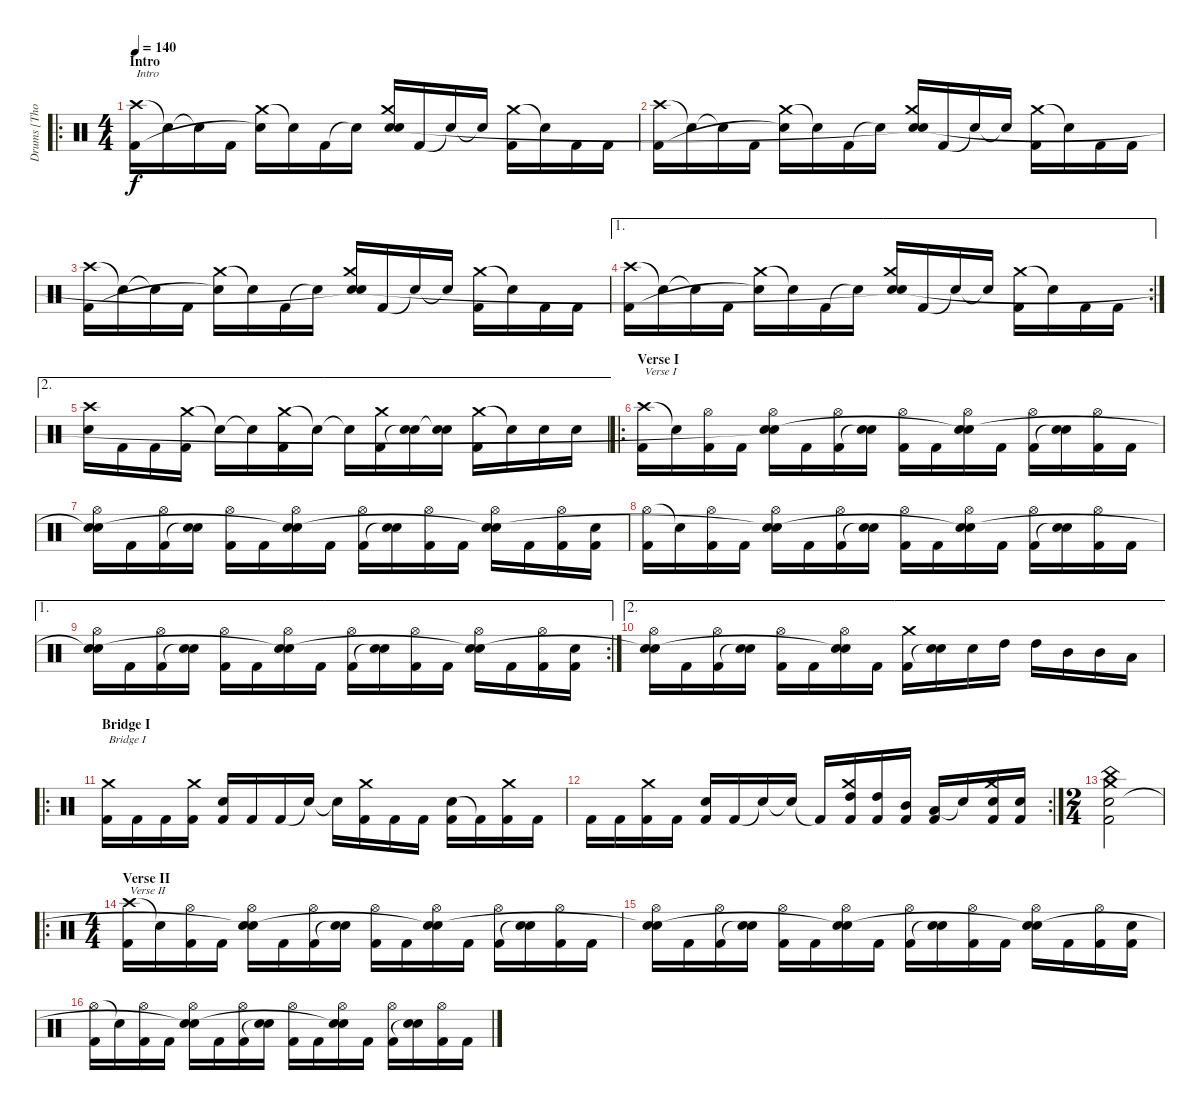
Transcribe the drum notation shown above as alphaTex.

\track ("Drums [Thomas Haake]" "Drums [Tho") {instrument percussion}
\staff {score}
\articulation defaults
\ro
\ts (4 4)
\section ("" "Intro")
\tempo 140
\clef neutral
\ks c
("Crash high (hit)" "Kick (hit) 2").16{txt "Intro" dy f} "Snare (hit)"{t}.16 "Snare (hit)"{t}.16 "Kick (hit) 2".16 ("Crash medium (hit)" "Snare (hit)"{t}).16 "Snare (hit)"{t}.16 "Kick (hit) 2".16 "Snare (hit)"{t}.16 ("Crash medium (hit)" "Electric Snare (hit)" "Snare (hit)").16 "Kick (hit) 2".16 "Snare (hit)"{t}.16 "Snare (hit)"{t}.16 ("Crash medium (hit)" "Kick (hit) 2").16 "Snare (hit)"{t}.16 "Kick (hit) 2".16 "Kick (hit) 2".16 |
("Crash high (hit)" "Kick (hit) 2").16 "Snare (hit)"{t}.16 "Snare (hit)"{t}.16 "Kick (hit) 2".16 ("Crash medium (hit)" "Snare (hit)"{t}).16 "Snare (hit)"{t}.16 "Kick (hit) 2".16 "Snare (hit)"{t}.16 ("Crash medium (hit)" "Electric Snare (hit)" "Snare (hit)"{t}).16 "Kick (hit) 2".16 "Snare (hit)"{t}.16 "Snare (hit)"{t}.16 ("Crash medium (hit)" "Kick (hit) 2").16 "Snare (hit)"{t}.16 "Kick (hit) 2".16 "Kick (hit) 2".16 |
("Crash high (hit)" "Kick (hit) 2").16 "Snare (hit)"{t}.16 "Snare (hit)"{t}.16 "Kick (hit) 2".16 ("Crash medium (hit)" "Snare (hit)"{t}).16 "Snare (hit)"{t}.16 "Kick (hit) 2".16 "Snare (hit)"{t}.16 ("Crash medium (hit)" "Electric Snare (hit)" "Snare (hit)"{t}).16 "Kick (hit) 2".16 "Snare (hit)"{t}.16 "Snare (hit)"{t}.16 ("Crash medium (hit)" "Kick (hit) 2").16 "Snare (hit)"{t}.16 "Kick (hit) 2".16 "Kick (hit) 2".16 |
\ae 1
\rc 2
("Crash high (hit)" "Kick (hit) 2").16 "Snare (hit)"{t}.16 "Snare (hit)"{t}.16 "Kick (hit) 2".16 ("Crash medium (hit)" "Snare (hit)"{t}).16 "Snare (hit)"{t}.16 "Kick (hit) 2".16 "Snare (hit)"{t}.16 ("Crash medium (hit)" "Electric Snare (hit)" "Snare (hit)"{t}).16 "Kick (hit) 2".16 "Snare (hit)"{t}.16 "Snare (hit)"{t}.16 ("Crash medium (hit)" "Kick (hit) 2").16 "Snare (hit)"{t}.16 "Kick (hit) 2".16 "Kick (hit) 2".16 |
\ae 2
("Crash high (hit)" "Electric Snare (hit)").16 "Kick (hit) 2".16 "Kick (hit) 2".16 ("Crash medium (hit)" "Kick (hit) 2").16 "Snare (hit)"{t}.16 "Snare (hit)"{t}.16 ("Crash medium (hit)" "Kick (hit) 2").16 "Snare (hit)"{t}.16 "Snare (hit)"{t}.16 ("Crash medium (hit)" "Kick (hit) 2").16 ("Electric Snare (hit)" "Snare (hit)"{t}).16 ("Electric Snare (hit)" "Snare (hit)"{t}).16 ("Crash medium (hit)" "Kick (hit) 2").16 "Snare (hit)"{t}.16 "Electric Snare (hit)".16 "Electric Snare (hit)".16 |
\ro
\section ("" "Verse I")
("Crash high (hit)" "Kick (hit) 2").16{txt "Verse I"} "Snare (hit)"{t}.16 ("Hi-Hat (open)" "Kick (hit) 2").16 "Kick (hit) 2".16 ("Hi-Hat (open)" "Electric Snare (hit)" "Snare (hit)"{t}).16 "Kick (hit) 2".16 ("Hi-Hat (open)" "Kick (hit) 2").16 ("Electric Snare (hit)" "Snare (hit)"{t}).16 ("Hi-Hat (open)" "Kick (hit) 2").16 "Kick (hit) 2".16 ("Hi-Hat (open)" "Electric Snare (hit)" "Snare (hit)"{t}).16 "Kick (hit) 2".16 ("Hi-Hat (open)" "Kick (hit) 2").16 ("Electric Snare (hit)" "Snare (hit)"{t}).16 ("Hi-Hat (open)" "Kick (hit) 2").16 "Kick (hit) 2".16 |
("Hi-Hat (open)" "Electric Snare (hit)" "Snare (hit)"{t}).16 "Kick (hit) 2".16 ("Hi-Hat (open)" "Kick (hit) 2").16 ("Electric Snare (hit)" "Snare (hit)"{t}).16 ("Hi-Hat (open)" "Kick (hit) 2").16 "Kick (hit) 2".16 ("Hi-Hat (open)" "Electric Snare (hit)" "Snare (hit)"{t}).16 "Kick (hit) 2".16 ("Hi-Hat (open)" "Kick (hit) 2").16 ("Electric Snare (hit)" "Snare (hit)"{t}).16 ("Hi-Hat (open)" "Kick (hit) 2").16 "Kick (hit) 2".16 ("Hi-Hat (open)" "Electric Snare (hit)" "Snare (hit)"{t}).16 "Kick (hit) 2".16 ("Hi-Hat (open)" "Kick (hit) 2").16 ("Electric Snare (hit)" "Kick (hit) 2").16 |
("Hi-Hat (open)" "Kick (hit) 2").16 "Snare (hit)"{t}.16 ("Hi-Hat (open)" "Kick (hit) 2").16 "Kick (hit) 2".16 ("Hi-Hat (open)" "Electric Snare (hit)" "Snare (hit)"{t}).16 "Kick (hit) 2".16 ("Hi-Hat (open)" "Kick (hit) 2").16 ("Electric Snare (hit)" "Snare (hit)"{t}).16 ("Hi-Hat (open)" "Kick (hit) 2").16 "Kick (hit) 2".16 ("Hi-Hat (open)" "Electric Snare (hit)" "Snare (hit)"{t}).16 "Kick (hit) 2".16 ("Hi-Hat (open)" "Kick (hit) 2").16 ("Electric Snare (hit)" "Snare (hit)"{t}).16 ("Hi-Hat (open)" "Kick (hit) 2").16 "Kick (hit) 2".16 |
\ae 1
\rc 2
("Hi-Hat (open)" "Electric Snare (hit)" "Snare (hit)"{t}).16 "Kick (hit) 2".16 ("Hi-Hat (open)" "Kick (hit) 2").16 ("Electric Snare (hit)" "Snare (hit)"{t}).16 ("Hi-Hat (open)" "Kick (hit) 2").16 "Kick (hit) 2".16 ("Hi-Hat (open)" "Electric Snare (hit)" "Snare (hit)"{t}).16 "Kick (hit) 2".16 ("Hi-Hat (open)" "Kick (hit) 2").16 ("Electric Snare (hit)" "Snare (hit)"{t}).16 ("Hi-Hat (open)" "Kick (hit) 2").16 "Kick (hit) 2".16 ("Hi-Hat (open)" "Electric Snare (hit)" "Snare (hit)"{t}).16 "Kick (hit) 2".16 ("Hi-Hat (open)" "Kick (hit) 2").16 ("Electric Snare (hit)" "Kick (hit) 2").16 |
\ae 2
("Hi-Hat (open)" "Electric Snare (hit)" "Snare (hit)"{t}).16 "Kick (hit) 2".16 ("Hi-Hat (open)" "Kick (hit) 2").16 ("Electric Snare (hit)" "Snare (hit)"{t}).16 ("Hi-Hat (open)" "Kick (hit) 2").16 "Kick (hit) 2".16 ("Hi-Hat (open)" "Electric Snare (hit)" "Snare (hit)"{t}).16 "Kick (hit) 2".16 ("Crash medium (hit)" "Kick (hit) 2").16 ("Electric Snare (hit)" "Snare (hit)"{t}).16 "Electric Snare (hit)".16 "High Tom (hit)".16 "High Tom (hit)".16 "Mid Tom (hit)".16 "Mid Tom (hit)".16 "Low Tom (hit)".16 |
\ro
\section ("" "Bridge I")
("Crash medium (hit)" "Kick (hit) 2").16{txt "Bridge I"} "Kick (hit) 2".16 "Kick (hit) 2".16 ("Crash medium (hit)" "Kick (hit) 2").16 ("Electric Snare (hit)" "Kick (hit) 2").16 "Kick (hit) 2".16 "Kick (hit) 2".16 "Snare (hit)"{t}.16 "Snare (hit)"{t}.16 ("Crash medium (hit)" "Kick (hit) 2").16 "Kick (hit) 2".16 "Kick (hit) 2".16 ("Electric Snare (hit)" "Kick (hit) 2").16 "Kick (hit) 2"{t}.16 ("Crash medium (hit)" "Kick (hit) 2").16 "Kick (hit) 2".16 |
\rc 2 "Kick (hit) 2".16 "Kick (hit) 2".16
("Crash medium (hit)" "Kick (hit) 2").16 "Kick (hit) 2".16 ("Electric Snare (hit)" "Kick (hit) 2").16 "Kick (hit) 2".16 "Snare (hit)"{t}.16 "Snare (hit)"{t}.16 "Kick (hit) 2"{t}.16 ("Crash medium (hit)" "High Tom (hit)" "Kick (hit) 2").16 ("High Tom (hit)" "Kick (hit) 2").16 ("Mid Tom (hit)" "Kick (hit) 2").16 ("Low Tom (hit)" "Kick (hit) 2").16 "Snare (hit)"{t}.16 ("Crash medium (hit)" "Electric Snare (hit)" "Kick (hit) 2").16 ("Electric Snare (hit)" "Kick (hit) 2").16 |
\ts (2 4)
("China (hit)" "Crash medium (hit)" "Electric Snare (hit)" "Kick (hit) 2").2 |
\ro
\ts (4 4)
\section ("" "Verse II")
("Crash high (hit)" "Kick (hit) 2").16{txt "Verse II"} "Snare (hit)"{t}.16 ("Hi-Hat (open)" "Kick (hit) 2").16 "Kick (hit) 2".16 ("Hi-Hat (open)" "Electric Snare (hit)" "Snare (hit)"{t}).16 "Kick (hit) 2".16 ("Hi-Hat (open)" "Kick (hit) 2").16 ("Electric Snare (hit)" "Snare (hit)"{t}).16 ("Hi-Hat (open)" "Kick (hit) 2").16 "Kick (hit) 2".16 ("Hi-Hat (open)" "Electric Snare (hit)" "Snare (hit)"{t}).16 "Kick (hit) 2".16 ("Hi-Hat (open)" "Kick (hit) 2").16 ("Electric Snare (hit)" "Snare (hit)"{t}).16 ("Hi-Hat (open)" "Kick (hit) 2").16 "Kick (hit) 2".16 |
("Hi-Hat (open)" "Electric Snare (hit)" "Snare (hit)"{t}).16 "Kick (hit) 2".16 ("Hi-Hat (open)" "Kick (hit) 2").16 ("Electric Snare (hit)" "Snare (hit)"{t}).16 ("Hi-Hat (open)" "Kick (hit) 2").16 "Kick (hit) 2".16 ("Hi-Hat (open)" "Electric Snare (hit)" "Snare (hit)"{t}).16 "Kick (hit) 2".16 ("Hi-Hat (open)" "Kick (hit) 2").16 ("Electric Snare (hit)" "Snare (hit)"{t}).16 ("Hi-Hat (open)" "Kick (hit) 2").16 "Kick (hit) 2".16 ("Hi-Hat (open)" "Electric Snare (hit)" "Snare (hit)"{t}).16 "Kick (hit) 2".16 ("Hi-Hat (open)" "Kick (hit) 2").16 ("Electric Snare (hit)" "Kick (hit) 2").16 |
("Hi-Hat (open)" "Kick (hit) 2").16 "Snare (hit)"{t}.16 ("Hi-Hat (open)" "Kick (hit) 2").16 "Kick (hit) 2".16 ("Hi-Hat (open)" "Electric Snare (hit)" "Snare (hit)"{t}).16 "Kick (hit) 2".16 ("Hi-Hat (open)" "Kick (hit) 2").16 ("Electric Snare (hit)" "Snare (hit)"{t}).16 ("Hi-Hat (open)" "Kick (hit) 2").16 "Kick (hit) 2".16 ("Hi-Hat (open)" "Electric Snare (hit)" "Snare (hit)"{t}).16 "Kick (hit) 2".16 ("Hi-Hat (open)" "Kick (hit) 2").16 ("Electric Snare (hit)" "Snare (hit)"{t}).16 ("Hi-Hat (open)" "Kick (hit) 2").16 "Kick (hit) 2".16
